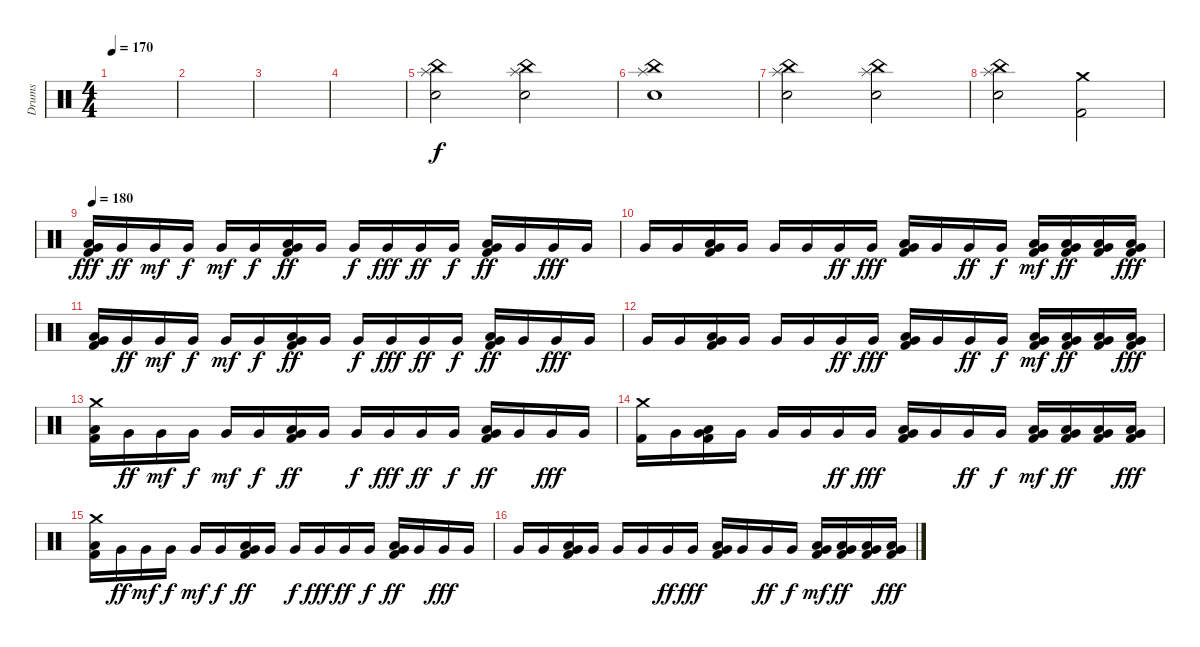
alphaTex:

\track ("Drums" "Drums") {instrument percussion}
\staff {score}
\articulation defaults
\ts (4 4)
\tempo 170
\clef neutral
\ks c
|
|
|
|
("Splash (hit)" "China (hit)" "Electric Snare (hit)").2 ("Splash (hit)" "China (hit)" "Electric Snare (hit)").2 |
("Splash (hit)" "China (hit)" "Electric Snare (hit)").1 |
("Splash (hit)" "China (hit)" "Electric Snare (hit)").2 ("Splash (hit)" "China (hit)" "Electric Snare (hit)").2 |
("Splash (hit)" "China (hit)" "Electric Snare (hit)").2 ("Crash medium (hit)" "Kick (hit) 2").2{dy f} |
\tempo 180
("Low Floor Tom (hit)" "Very Low Tom (hit)" "Kick (hit) 2").16{dy fff} "Very Low Tom (hit)".16{dy ff} "Very Low Tom (hit)".16{dy mf} "Very Low Tom (hit)".16{dy f} "Very Low Tom (hit)".16{dy mf} "Very Low Tom (hit)".16{dy f} ("Low Floor Tom (hit)" "Very Low Tom (hit)" "Kick (hit) 2").16{dy ff} "Very Low Tom (hit)".16 "Very Low Tom (hit)".16{dy f} "Very Low Tom (hit)".16{dy fff} "Very Low Tom (hit)".16{dy ff} "Very Low Tom (hit)".16{dy f} ("Low Floor Tom (hit)" "Very Low Tom (hit)" "Kick (hit) 2").16{dy ff} "Very Low Tom (hit)".16 "Very Low Tom (hit)".16{dy fff} "Very Low Tom (hit)".16 |
"Very Low Tom (hit)".16 "Very Low Tom (hit)".16 ("Low Floor Tom (hit)" "Very Low Tom (hit)" "Kick (hit) 2").16 "Very Low Tom (hit)".16 "Very Low Tom (hit)".16 "Very Low Tom (hit)".16 "Very Low Tom (hit)".16{dy ff} "Very Low Tom (hit)".16{dy fff} ("Kick (hit) 2" "Very Low Tom (hit)" "Low Floor Tom (hit)").16 "Very Low Tom (hit)".16 "Very Low Tom (hit)".16{dy ff} "Very Low Tom (hit)".16{dy f} ("Kick (hit) 2" "Very Low Tom (hit)" "Low Floor Tom (hit)").16{dy mf} ("Low Floor Tom (hit)" "Very Low Tom (hit)" "Kick (hit) 2").16{dy ff} ("Low Floor Tom (hit)" "Very Low Tom (hit)" "Kick (hit) 2").16 ("Low Floor Tom (hit)" "Very Low Tom (hit)" "Kick (hit) 2").16{dy fff} |
("Low Floor Tom (hit)" "Very Low Tom (hit)" "Kick (hit) 2").16 "Very Low Tom (hit)".16{dy ff} "Very Low Tom (hit)".16{dy mf} "Very Low Tom (hit)".16{dy f} "Very Low Tom (hit)".16{dy mf} "Very Low Tom (hit)".16{dy f} ("Low Floor Tom (hit)" "Very Low Tom (hit)" "Kick (hit) 2").16{dy ff} "Very Low Tom (hit)".16 "Very Low Tom (hit)".16{dy f} "Very Low Tom (hit)".16{dy fff} "Very Low Tom (hit)".16{dy ff} "Very Low Tom (hit)".16{dy f} ("Low Floor Tom (hit)" "Very Low Tom (hit)" "Kick (hit) 2").16{dy ff} "Very Low Tom (hit)".16 "Very Low Tom (hit)".16{dy fff} "Very Low Tom (hit)".16 |
"Very Low Tom (hit)".16 "Very Low Tom (hit)".16 ("Low Floor Tom (hit)" "Very Low Tom (hit)" "Kick (hit) 2").16 "Very Low Tom (hit)".16 "Very Low Tom (hit)".16 "Very Low Tom (hit)".16 "Very Low Tom (hit)".16{dy ff} "Very Low Tom (hit)".16{dy fff} ("Kick (hit) 2" "Very Low Tom (hit)" "Low Floor Tom (hit)").16 "Very Low Tom (hit)".16 "Very Low Tom (hit)".16{dy ff} "Very Low Tom (hit)".16{dy f} ("Kick (hit) 2" "Very Low Tom (hit)" "Low Floor Tom (hit)").16{dy mf} ("Low Floor Tom (hit)" "Very Low Tom (hit)" "Kick (hit) 2").16{dy ff} ("Low Floor Tom (hit)" "Very Low Tom (hit)" "Kick (hit) 2").16 ("Low Floor Tom (hit)" "Very Low Tom (hit)" "Kick (hit) 2").16{dy fff} |
("Low Floor Tom (hit)" "Crash medium (hit)" "Kick (hit) 2").16 "Very Low Tom (hit)".16{dy ff} "Very Low Tom (hit)".16{dy mf} "Very Low Tom (hit)".16{dy f} "Very Low Tom (hit)".16{dy mf} "Very Low Tom (hit)".16{dy f} ("Low Floor Tom (hit)" "Very Low Tom (hit)" "Kick (hit) 2").16{dy ff} "Very Low Tom (hit)".16 "Very Low Tom (hit)".16{dy f} "Very Low Tom (hit)".16{dy fff} "Very Low Tom (hit)".16{dy ff} "Very Low Tom (hit)".16{dy f} ("Low Floor Tom (hit)" "Very Low Tom (hit)" "Kick (hit) 2").16{dy ff} "Very Low Tom (hit)".16 "Very Low Tom (hit)".16{dy fff} "Very Low Tom (hit)".16 |
("Kick (hit) 2" "Crash medium (hit)").16 "Very Low Tom (hit)".16 ("Low Floor Tom (hit)" "Very Low Tom (hit)" "Kick (hit) 2").16 "Very Low Tom (hit)".16 "Very Low Tom (hit)".16 "Very Low Tom (hit)".16 "Very Low Tom (hit)".16{dy ff} "Very Low Tom (hit)".16{dy fff} ("Kick (hit) 2" "Very Low Tom (hit)" "Low Floor Tom (hit)").16 "Very Low Tom (hit)".16 "Very Low Tom (hit)".16{dy ff} "Very Low Tom (hit)".16{dy f} ("Kick (hit) 2" "Very Low Tom (hit)" "Low Floor Tom (hit)").16{dy mf} ("Low Floor Tom (hit)" "Very Low Tom (hit)" "Kick (hit) 2").16{dy ff} ("Low Floor Tom (hit)" "Very Low Tom (hit)" "Kick (hit) 2").16 ("Low Floor Tom (hit)" "Very Low Tom (hit)" "Kick (hit) 2").16{dy fff} |
("Low Floor Tom (hit)" "Crash medium (hit)" "Kick (hit) 2").16 "Very Low Tom (hit)".16{dy ff} "Very Low Tom (hit)".16{dy mf} "Very Low Tom (hit)".16{dy f} "Very Low Tom (hit)".16{dy mf} "Very Low Tom (hit)".16{dy f} ("Low Floor Tom (hit)" "Very Low Tom (hit)" "Kick (hit) 2").16{dy ff} "Very Low Tom (hit)".16 "Very Low Tom (hit)".16{dy f} "Very Low Tom (hit)".16{dy fff} "Very Low Tom (hit)".16{dy ff} "Very Low Tom (hit)".16{dy f} ("Low Floor Tom (hit)" "Very Low Tom (hit)" "Kick (hit) 2").16{dy ff} "Very Low Tom (hit)".16 "Very Low Tom (hit)".16{dy fff} "Very Low Tom (hit)".16 |
"Very Low Tom (hit)".16 "Very Low Tom (hit)".16 ("Low Floor Tom (hit)" "Very Low Tom (hit)" "Kick (hit) 2").16 "Very Low Tom (hit)".16 "Very Low Tom (hit)".16 "Very Low Tom (hit)".16 "Very Low Tom (hit)".16{dy ff} "Very Low Tom (hit)".16{dy fff} ("Kick (hit) 2" "Very Low Tom (hit)" "Low Floor Tom (hit)").16 "Very Low Tom (hit)".16 "Very Low Tom (hit)".16{dy ff} "Very Low Tom (hit)".16{dy f} ("Kick (hit) 2" "Very Low Tom (hit)" "Low Floor Tom (hit)").16{dy mf} ("Low Floor Tom (hit)" "Very Low Tom (hit)" "Kick (hit) 2").16{dy ff} ("Low Floor Tom (hit)" "Very Low Tom (hit)" "Kick (hit) 2").16 ("Low Floor Tom (hit)" "Very Low Tom (hit)" "Kick (hit) 2").16{dy fff}
